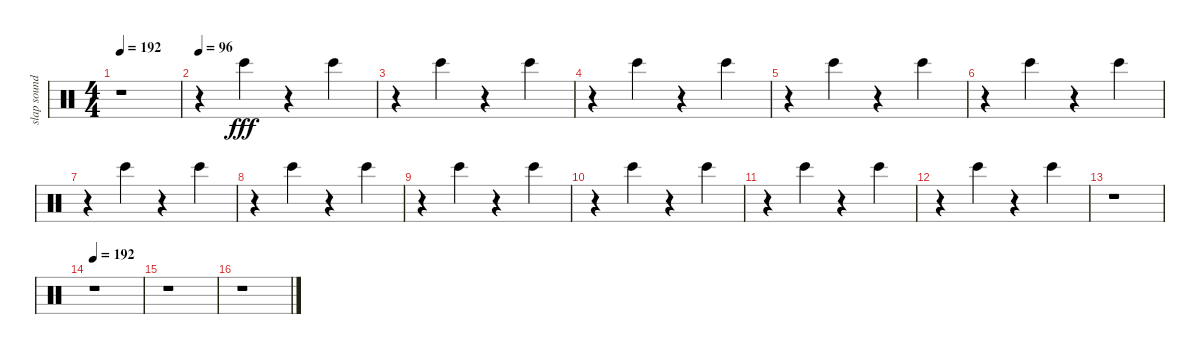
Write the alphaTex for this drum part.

\track ("slap sound" "slap sound") {instrument percussion}
\staff {score}
\articulation defaults
\ts (4 4)
\tempo 192
\clef neutral
\ks c
r.1{dy fff} |
\tempo 96
r.4 "Bongo High (hit)".4 r.4 "Bongo High (hit)".4 |
r.4 "Bongo High (hit)".4 r.4 "Bongo High (hit)".4 |
r.4 "Bongo High (hit)".4 r.4 "Bongo High (hit)".4 |
r.4 "Bongo High (hit)".4 r.4 "Bongo High (hit)".4 |
r.4 "Bongo High (hit)".4 r.4 "Bongo High (hit)".4 |
r.4 "Bongo High (hit)".4 r.4 "Bongo High (hit)".4 |
r.4 "Bongo High (hit)".4 r.4 "Bongo High (hit)".4 |
r.4 "Bongo High (hit)".4 r.4 "Bongo High (hit)".4 |
r.4 "Bongo High (hit)".4 r.4 "Bongo High (hit)".4 |
r.4 "Bongo High (hit)".4 r.4 "Bongo High (hit)".4 |
r.4 "Bongo High (hit)".4 r.4 "Bongo High (hit)".4 |
r.1 |
\tempo 192
r.1 |
r.1 |
r.1
